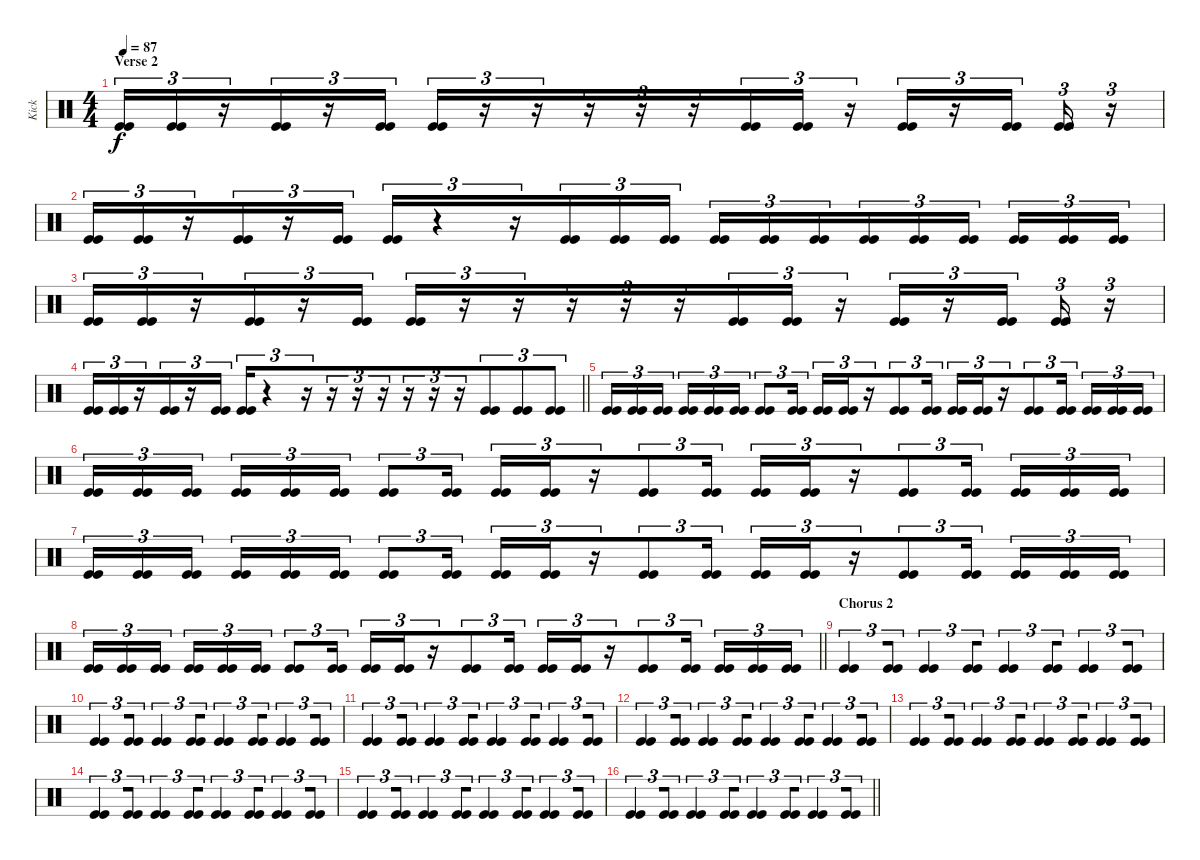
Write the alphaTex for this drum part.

\track ("Kick" "Kick") {instrument percussion bank 158}
\staff {score}
\articulation defaults
\ts (4 4)
\section ("" "Verse 2")
\tempo 87
\clef neutral
\ks c
("Kick (hit)" "Kick (hit)").16{tu (3 2) dy f} ("Kick (hit)" "Kick (hit)").16{tu (3 2) beam merge} r.16{tu (3 2) beam merge} ("Kick (hit)" "Kick (hit)").16{tu (3 2)} r.16{tu (3 2) beam merge} ("Kick (hit)" "Kick (hit)").16{tu (3 2)} ("Kick (hit)" "Kick (hit)").16{tu (3 2) beam merge} r.16{tu (3 2)} r.16{tu (3 2) beam merge} r.16{tu (3 2)} r.16{tu (3 2)} r.16{tu (3 2) beam merge} ("Kick (hit)" "Kick (hit)").16{tu (3 2)} ("Kick (hit)" "Kick (hit)").16{tu (3 2)} r.16{tu (3 2) beam merge} ("Kick (hit)" "Kick (hit)").16{tu (3 2)} r.16{tu (3 2)} ("Kick (hit)" "Kick (hit)").16{tu (3 2)} ("Kick (hit)" "Kick (hit)").16{tu (3 2) beam merge} r.16{tu (3 2)} |
("Kick (hit)" "Kick (hit)").16{tu (3 2)} ("Kick (hit)" "Kick (hit)").16{tu (3 2) beam merge} r.16{tu (3 2) beam merge} ("Kick (hit)" "Kick (hit)").16{tu (3 2)} r.16{tu (3 2) beam merge} ("Kick (hit)" "Kick (hit)").16{tu (3 2)} ("Kick (hit)" "Kick (hit)").16{tu (3 2) beam merge} r.4{tu (3 2)} r.16{tu (3 2) beam merge} ("Kick (hit)" "Kick (hit)").16{tu (3 2)} ("Kick (hit)" "Kick (hit)").16{tu (3 2)} ("Kick (hit)" "Kick (hit)").16{tu (3 2) beam splitsecondary} ("Kick (hit)" "Kick (hit)").16{tu (3 2)} ("Kick (hit)" "Kick (hit)").16{tu (3 2)} ("Kick (hit)" "Kick (hit)").16{tu (3 2) beam merge} ("Kick (hit)" "Kick (hit)").16{tu (3 2)} ("Kick (hit)" "Kick (hit)").16{tu (3 2)} ("Kick (hit)" "Kick (hit)").16{tu (3 2) beam splitsecondary} ("Kick (hit)" "Kick (hit)").16{tu (3 2) beam merge} ("Kick (hit)" "Kick (hit)").16{tu (3 2)} ("Kick (hit)" "Kick (hit)").16{tu (3 2)} |
("Kick (hit)" "Kick (hit)").16{tu (3 2)} ("Kick (hit)" "Kick (hit)").16{tu (3 2) beam merge} r.16{tu (3 2) beam merge} ("Kick (hit)" "Kick (hit)").16{tu (3 2)} r.16{tu (3 2) beam merge} ("Kick (hit)" "Kick (hit)").16{tu (3 2)} ("Kick (hit)" "Kick (hit)").16{tu (3 2) beam merge} r.16{tu (3 2)} r.16{tu (3 2) beam merge} r.16{tu (3 2)} r.16{tu (3 2)} r.16{tu (3 2) beam merge} ("Kick (hit)" "Kick (hit)").16{tu (3 2)} ("Kick (hit)" "Kick (hit)").16{tu (3 2)} r.16{tu (3 2) beam merge} ("Kick (hit)" "Kick (hit)").16{tu (3 2)} r.16{tu (3 2)} ("Kick (hit)" "Kick (hit)").16{tu (3 2)} ("Kick (hit)" "Kick (hit)").16{tu (3 2) beam merge} r.16{tu (3 2)} |
\barLineRight lightlight
("Kick (hit)" "Kick (hit)").16{tu (3 2)} ("Kick (hit)" "Kick (hit)").16{tu (3 2) beam merge} r.16{tu (3 2) beam merge} ("Kick (hit)" "Kick (hit)").16{tu (3 2)} r.16{tu (3 2) beam merge} ("Kick (hit)" "Kick (hit)").16{tu (3 2)} ("Kick (hit)" "Kick (hit)").16{tu (3 2) beam merge} r.4{tu (3 2)} r.16{tu (3 2) beam merge} r.16{tu (3 2)} r.16{tu (3 2)} r.16{tu (3 2) beam merge} r.16{tu (3 2)} r.16{tu (3 2)} r.16{tu (3 2)} ("Kick (hit)" "Kick (hit)").8{tu (3 2) beam merge} ("Kick (hit)" "Kick (hit)").8{tu (3 2)} ("Kick (hit)" "Kick (hit)").8{tu (3 2)} |
("Kick (hit)" "Kick (hit)").16{tu (3 2)} ("Kick (hit)" "Kick (hit)").16{tu (3 2) beam merge} ("Kick (hit)" "Kick (hit)").16{tu (3 2) beam splitsecondary} ("Kick (hit)" "Kick (hit)").16{tu (3 2)} ("Kick (hit)" "Kick (hit)").16{tu (3 2)} ("Kick (hit)" "Kick (hit)").16{tu (3 2)} ("Kick (hit)" "Kick (hit)").8{tu (3 2) beam merge} ("Kick (hit)" "Kick (hit)").16{tu (3 2) beam splitsecondary} ("Kick (hit)" "Kick (hit)").16{tu (3 2) beam merge} ("Kick (hit)" "Kick (hit)").16{tu (3 2) beam merge} r.16{tu (3 2) beam merge} ("Kick (hit)" "Kick (hit)").8{tu (3 2) beam merge} ("Kick (hit)" "Kick (hit)").16{tu (3 2) beam splitsecondary} ("Kick (hit)" "Kick (hit)").16{tu (3 2) beam merge} ("Kick (hit)" "Kick (hit)").16{tu (3 2) beam merge} r.16{tu (3 2)} ("Kick (hit)" "Kick (hit)").8{tu (3 2) beam merge} ("Kick (hit)" "Kick (hit)").16{tu (3 2) beam splitsecondary} ("Kick (hit)" "Kick (hit)").16{tu (3 2) beam merge} ("Kick (hit)" "Kick (hit)").16{tu (3 2) beam merge} ("Kick (hit)" "Kick (hit)").16{tu (3 2)} |
("Kick (hit)" "Kick (hit)").16{tu (3 2)} ("Kick (hit)" "Kick (hit)").16{tu (3 2) beam merge} ("Kick (hit)" "Kick (hit)").16{tu (3 2) beam splitsecondary} ("Kick (hit)" "Kick (hit)").16{tu (3 2)} ("Kick (hit)" "Kick (hit)").16{tu (3 2)} ("Kick (hit)" "Kick (hit)").16{tu (3 2)} ("Kick (hit)" "Kick (hit)").8{tu (3 2) beam merge} ("Kick (hit)" "Kick (hit)").16{tu (3 2) beam splitsecondary} ("Kick (hit)" "Kick (hit)").16{tu (3 2) beam merge} ("Kick (hit)" "Kick (hit)").16{tu (3 2) beam merge} r.16{tu (3 2) beam merge} ("Kick (hit)" "Kick (hit)").8{tu (3 2) beam merge} ("Kick (hit)" "Kick (hit)").16{tu (3 2) beam splitsecondary} ("Kick (hit)" "Kick (hit)").16{tu (3 2) beam merge} ("Kick (hit)" "Kick (hit)").16{tu (3 2) beam merge} r.16{tu (3 2)} ("Kick (hit)" "Kick (hit)").8{tu (3 2) beam merge} ("Kick (hit)" "Kick (hit)").16{tu (3 2) beam splitsecondary} ("Kick (hit)" "Kick (hit)").16{tu (3 2) beam merge} ("Kick (hit)" "Kick (hit)").16{tu (3 2) beam merge} ("Kick (hit)" "Kick (hit)").16{tu (3 2)} |
("Kick (hit)" "Kick (hit)").16{tu (3 2)} ("Kick (hit)" "Kick (hit)").16{tu (3 2) beam merge} ("Kick (hit)" "Kick (hit)").16{tu (3 2) beam splitsecondary} ("Kick (hit)" "Kick (hit)").16{tu (3 2)} ("Kick (hit)" "Kick (hit)").16{tu (3 2)} ("Kick (hit)" "Kick (hit)").16{tu (3 2)} ("Kick (hit)" "Kick (hit)").8{tu (3 2) beam merge} ("Kick (hit)" "Kick (hit)").16{tu (3 2) beam splitsecondary} ("Kick (hit)" "Kick (hit)").16{tu (3 2) beam merge} ("Kick (hit)" "Kick (hit)").16{tu (3 2) beam merge} r.16{tu (3 2) beam merge} ("Kick (hit)" "Kick (hit)").8{tu (3 2) beam merge} ("Kick (hit)" "Kick (hit)").16{tu (3 2) beam splitsecondary} ("Kick (hit)" "Kick (hit)").16{tu (3 2) beam merge} ("Kick (hit)" "Kick (hit)").16{tu (3 2) beam merge} r.16{tu (3 2)} ("Kick (hit)" "Kick (hit)").8{tu (3 2) beam merge} ("Kick (hit)" "Kick (hit)").16{tu (3 2) beam splitsecondary} ("Kick (hit)" "Kick (hit)").16{tu (3 2) beam merge} ("Kick (hit)" "Kick (hit)").16{tu (3 2) beam merge} ("Kick (hit)" "Kick (hit)").16{tu (3 2)} |
\barLineRight lightlight
("Kick (hit)" "Kick (hit)").16{tu (3 2)} ("Kick (hit)" "Kick (hit)").16{tu (3 2) beam merge} ("Kick (hit)" "Kick (hit)").16{tu (3 2) beam splitsecondary} ("Kick (hit)" "Kick (hit)").16{tu (3 2)} ("Kick (hit)" "Kick (hit)").16{tu (3 2)} ("Kick (hit)" "Kick (hit)").16{tu (3 2)} ("Kick (hit)" "Kick (hit)").8{tu (3 2) beam merge} ("Kick (hit)" "Kick (hit)").16{tu (3 2) beam splitsecondary} ("Kick (hit)" "Kick (hit)").16{tu (3 2) beam merge} ("Kick (hit)" "Kick (hit)").16{tu (3 2) beam merge} r.16{tu (3 2) beam merge} ("Kick (hit)" "Kick (hit)").8{tu (3 2) beam merge} ("Kick (hit)" "Kick (hit)").16{tu (3 2) beam splitsecondary} ("Kick (hit)" "Kick (hit)").16{tu (3 2) beam merge} ("Kick (hit)" "Kick (hit)").16{tu (3 2) beam merge} r.16{tu (3 2)} ("Kick (hit)" "Kick (hit)").8{tu (3 2) beam merge} ("Kick (hit)" "Kick (hit)").16{tu (3 2) beam splitsecondary} ("Kick (hit)" "Kick (hit)").16{tu (3 2) beam merge} ("Kick (hit)" "Kick (hit)").16{tu (3 2) beam merge} ("Kick (hit)" "Kick (hit)").16{tu (3 2)} |
\section ("" "Chorus 2")
("Kick (hit)" "Kick (hit)").4{tu (3 2) beam merge} ("Kick (hit)" "Kick (hit)").8{tu (3 2)} ("Kick (hit)" "Kick (hit)").4{tu (3 2)} ("Kick (hit)" "Kick (hit)").8{tu (3 2) beam merge} ("Kick (hit)" "Kick (hit)").4{tu (3 2)} ("Kick (hit)" "Kick (hit)").8{tu (3 2) beam merge} ("Kick (hit)" "Kick (hit)").4{tu (3 2) beam merge} ("Kick (hit)" "Kick (hit)").8{tu (3 2)} |
("Kick (hit)" "Kick (hit)").4{tu (3 2) beam merge} ("Kick (hit)" "Kick (hit)").8{tu (3 2)} ("Kick (hit)" "Kick (hit)").4{tu (3 2)} ("Kick (hit)" "Kick (hit)").8{tu (3 2) beam merge} ("Kick (hit)" "Kick (hit)").4{tu (3 2)} ("Kick (hit)" "Kick (hit)").8{tu (3 2) beam merge} ("Kick (hit)" "Kick (hit)").4{tu (3 2) beam merge} ("Kick (hit)" "Kick (hit)").8{tu (3 2)} |
("Kick (hit)" "Kick (hit)").4{tu (3 2) beam merge} ("Kick (hit)" "Kick (hit)").8{tu (3 2)} ("Kick (hit)" "Kick (hit)").4{tu (3 2)} ("Kick (hit)" "Kick (hit)").8{tu (3 2) beam merge} ("Kick (hit)" "Kick (hit)").4{tu (3 2)} ("Kick (hit)" "Kick (hit)").8{tu (3 2) beam merge} ("Kick (hit)" "Kick (hit)").4{tu (3 2) beam merge} ("Kick (hit)" "Kick (hit)").8{tu (3 2)} |
("Kick (hit)" "Kick (hit)").4{tu (3 2) beam merge} ("Kick (hit)" "Kick (hit)").8{tu (3 2)} ("Kick (hit)" "Kick (hit)").4{tu (3 2)} ("Kick (hit)" "Kick (hit)").8{tu (3 2) beam merge} ("Kick (hit)" "Kick (hit)").4{tu (3 2)} ("Kick (hit)" "Kick (hit)").8{tu (3 2) beam merge} ("Kick (hit)" "Kick (hit)").4{tu (3 2) beam merge} ("Kick (hit)" "Kick (hit)").8{tu (3 2)} |
("Kick (hit)" "Kick (hit)").4{tu (3 2) beam merge} ("Kick (hit)" "Kick (hit)").8{tu (3 2)} ("Kick (hit)" "Kick (hit)").4{tu (3 2)} ("Kick (hit)" "Kick (hit)").8{tu (3 2) beam merge} ("Kick (hit)" "Kick (hit)").4{tu (3 2)} ("Kick (hit)" "Kick (hit)").8{tu (3 2) beam merge} ("Kick (hit)" "Kick (hit)").4{tu (3 2) beam merge} ("Kick (hit)" "Kick (hit)").8{tu (3 2)} |
("Kick (hit)" "Kick (hit)").4{tu (3 2) beam merge} ("Kick (hit)" "Kick (hit)").8{tu (3 2)} ("Kick (hit)" "Kick (hit)").4{tu (3 2)} ("Kick (hit)" "Kick (hit)").8{tu (3 2) beam merge} ("Kick (hit)" "Kick (hit)").4{tu (3 2)} ("Kick (hit)" "Kick (hit)").8{tu (3 2) beam merge} ("Kick (hit)" "Kick (hit)").4{tu (3 2) beam merge} ("Kick (hit)" "Kick (hit)").8{tu (3 2)} |
("Kick (hit)" "Kick (hit)").4{tu (3 2) beam merge} ("Kick (hit)" "Kick (hit)").8{tu (3 2)} ("Kick (hit)" "Kick (hit)").4{tu (3 2)} ("Kick (hit)" "Kick (hit)").8{tu (3 2) beam merge} ("Kick (hit)" "Kick (hit)").4{tu (3 2)} ("Kick (hit)" "Kick (hit)").8{tu (3 2) beam merge} ("Kick (hit)" "Kick (hit)").4{tu (3 2) beam merge} ("Kick (hit)" "Kick (hit)").8{tu (3 2)} |
\barLineRight lightlight
("Kick (hit)" "Kick (hit)").4{tu (3 2) beam merge} ("Kick (hit)" "Kick (hit)").8{tu (3 2)} ("Kick (hit)" "Kick (hit)").4{tu (3 2)} ("Kick (hit)" "Kick (hit)").8{tu (3 2) beam merge} ("Kick (hit)" "Kick (hit)").4{tu (3 2)} ("Kick (hit)" "Kick (hit)").8{tu (3 2) beam merge} ("Kick (hit)" "Kick (hit)").4{tu (3 2) beam merge} ("Kick (hit)" "Kick (hit)").8{tu (3 2)}
